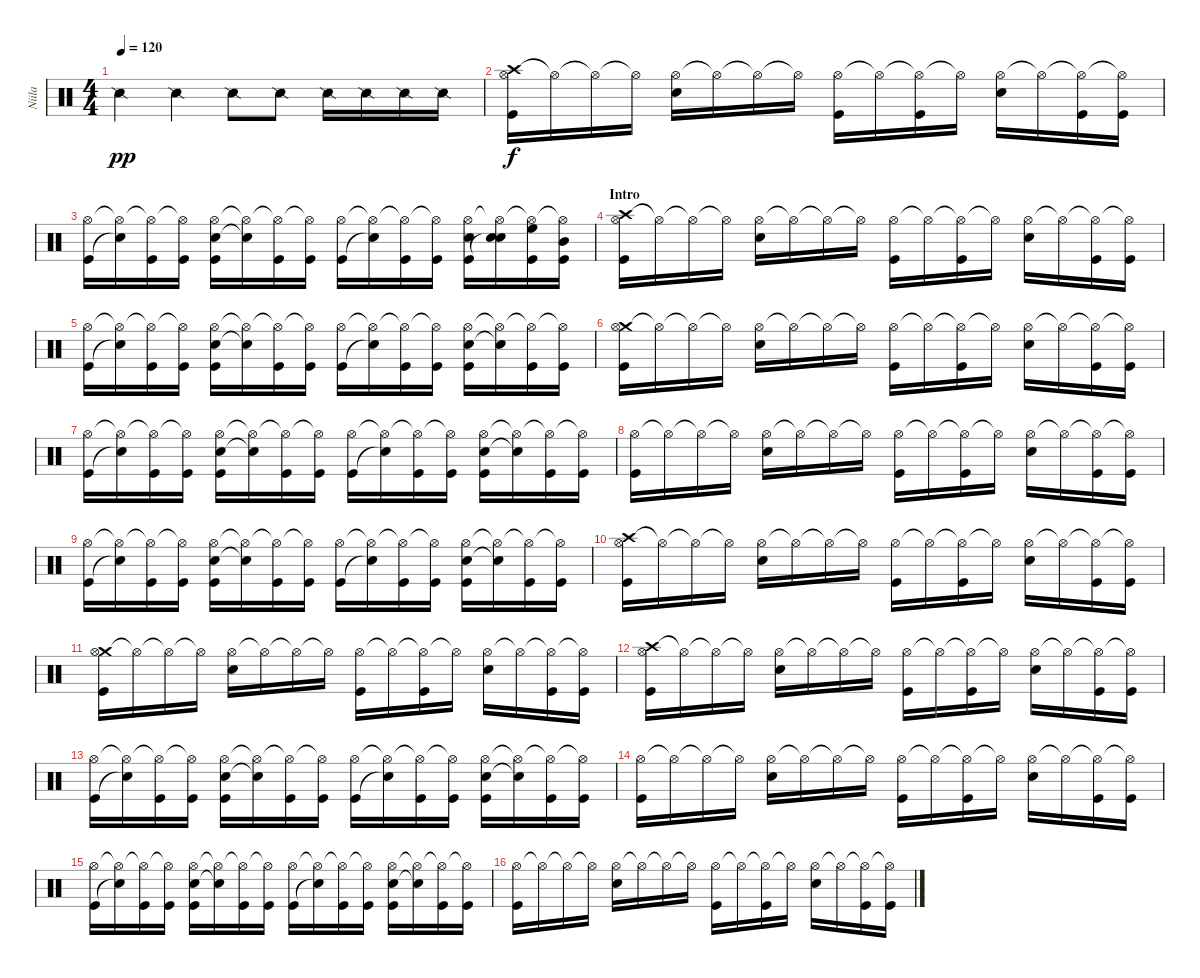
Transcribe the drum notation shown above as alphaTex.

\track ("Niila" "Niila") {instrument percussion}
\staff {score}
\articulation defaults
\ts (4 4)
\tempo 120
\clef neutral
\ks c "Snare (side stick) 2".4{dy pp} "Snare (side stick) 2".4 "Snare (side stick) 2".8 "Snare (side stick) 2".8 "Snare (side stick) 2".16 "Snare (side stick) 2".16 "Snare (side stick) 2".16 "Snare (side stick) 2".16
|
("Crash high (hit)" "Hi-Hat (open)" "Kick (hit)").16{dy f} "Hi-Hat (open)"{t}.16 "Hi-Hat (open)"{t}.16 "Hi-Hat (open)"{t}.16 ("Hi-Hat (open)" "Snare (hit) 2").16 "Hi-Hat (open)"{t}.16 "Hi-Hat (open)"{t}.16 "Hi-Hat (open)"{t}.16 ("Hi-Hat (open)" "Kick (hit)").16 "Hi-Hat (open)"{t}.16 ("Hi-Hat (open)"{t} "Kick (hit)").16 "Hi-Hat (open)"{t}.16 ("Hi-Hat (open)" "Snare (hit) 2").16 "Hi-Hat (open)"{t}.16 ("Hi-Hat (open)"{t} "Kick (hit)").16 ("Hi-Hat (open)"{t} "Kick (hit)").16 |
("Hi-Hat (open)" "Kick (hit)").16 ("Hi-Hat (open)"{t} "Snare (hit)"{t}).16 ("Hi-Hat (open)"{t} "Kick (hit)").16 ("Hi-Hat (open)"{t} "Kick (hit)").16 ("Hi-Hat (open)" "Snare (hit) 2" "Kick (hit)").16 ("Hi-Hat (open)"{t} "Snare (hit)"{t}).16 ("Hi-Hat (open)"{t} "Kick (hit)").16 ("Hi-Hat (open)"{t} "Kick (hit)").16 ("Hi-Hat (open)" "Kick (hit)").16 ("Hi-Hat (open)"{t} "Snare (hit)"{t}).16 ("Hi-Hat (open)"{t} "Kick (hit)").16 ("Hi-Hat (open)"{t} "Kick (hit)").16 ("Hi-Hat (open)" "Snare (hit) 2" "Kick (hit)").16 ("Hi-Hat (open)"{t} "Snare (hit) 2" "Snare (hit)"{t}).16 ("Hi-Hat (open)"{t} "High Floor Tom (hit)" "Kick (hit)").16 ("Hi-Hat (open)"{t} "Mid Tom (hit)" "Kick (hit)").16 |
\section ("" "Intro")
("Crash high (hit)" "Hi-Hat (open)" "Kick (hit)").16 "Hi-Hat (open)"{t}.16 "Hi-Hat (open)"{t}.16 "Hi-Hat (open)"{t}.16 ("Hi-Hat (open)" "Snare (hit) 2").16 "Hi-Hat (open)"{t}.16 "Hi-Hat (open)"{t}.16 "Hi-Hat (open)"{t}.16 ("Hi-Hat (open)" "Kick (hit)").16 "Hi-Hat (open)"{t}.16 ("Hi-Hat (open)"{t} "Kick (hit)").16 "Hi-Hat (open)"{t}.16 ("Hi-Hat (open)" "Snare (hit) 2").16 "Hi-Hat (open)"{t}.16 ("Hi-Hat (open)"{t} "Kick (hit)").16 ("Hi-Hat (open)"{t} "Kick (hit)").16 |
("Hi-Hat (open)" "Kick (hit)").16 ("Hi-Hat (open)"{t} "Snare (hit)"{t}).16 ("Hi-Hat (open)"{t} "Kick (hit)").16 ("Hi-Hat (open)"{t} "Kick (hit)").16 ("Hi-Hat (open)" "Snare (hit) 2" "Kick (hit)").16 ("Hi-Hat (open)"{t} "Snare (hit)"{t}).16 ("Hi-Hat (open)"{t} "Kick (hit)").16 ("Hi-Hat (open)"{t} "Kick (hit)").16 ("Hi-Hat (open)" "Kick (hit)").16 ("Hi-Hat (open)"{t} "Snare (hit)"{t}).16 ("Hi-Hat (open)"{t} "Kick (hit)").16 ("Hi-Hat (open)"{t} "Kick (hit)").16 ("Hi-Hat (open)" "Snare (hit) 2" "Kick (hit)").16 ("Hi-Hat (open)"{t} "Snare (hit)"{t}).16 ("Hi-Hat (open)"{t} "Kick (hit)").16 ("Hi-Hat (open)"{t} "Kick (hit)").16 |
("Crash medium (hit)" "Hi-Hat (open)" "Kick (hit)").16 "Hi-Hat (open)"{t}.16 "Hi-Hat (open)"{t}.16 "Hi-Hat (open)"{t}.16 ("Hi-Hat (open)" "Snare (hit) 2").16 "Hi-Hat (open)"{t}.16 "Hi-Hat (open)"{t}.16 "Hi-Hat (open)"{t}.16 ("Hi-Hat (open)" "Kick (hit)").16 "Hi-Hat (open)"{t}.16 ("Hi-Hat (open)"{t} "Kick (hit)").16 "Hi-Hat (open)"{t}.16 ("Hi-Hat (open)" "Snare (hit) 2").16 "Hi-Hat (open)"{t}.16 ("Hi-Hat (open)"{t} "Kick (hit)").16 ("Hi-Hat (open)"{t} "Kick (hit)").16 |
("Hi-Hat (open)" "Kick (hit)").16 ("Hi-Hat (open)"{t} "Snare (hit)"{t}).16 ("Hi-Hat (open)"{t} "Kick (hit)").16 ("Hi-Hat (open)"{t} "Kick (hit)").16 ("Hi-Hat (open)" "Snare (hit) 2" "Kick (hit)").16 ("Hi-Hat (open)"{t} "Snare (hit)"{t}).16 ("Hi-Hat (open)"{t} "Kick (hit)").16 ("Hi-Hat (open)"{t} "Kick (hit)").16 ("Hi-Hat (open)" "Kick (hit)").16 ("Hi-Hat (open)"{t} "Snare (hit)"{t}).16 ("Hi-Hat (open)"{t} "Kick (hit)").16 ("Hi-Hat (open)"{t} "Kick (hit)").16 ("Hi-Hat (open)" "Snare (hit) 2" "Kick (hit)").16 ("Hi-Hat (open)"{t} "Snare (hit)"{t}).16 ("Hi-Hat (open)"{t} "Kick (hit)").16 ("Hi-Hat (open)"{t} "Kick (hit)").16 |
("Hi-Hat (open)" "Kick (hit)").16 "Hi-Hat (open)"{t}.16 "Hi-Hat (open)"{t}.16 "Hi-Hat (open)"{t}.16 ("Hi-Hat (open)" "Snare (hit) 2").16 "Hi-Hat (open)"{t}.16 "Hi-Hat (open)"{t}.16 "Hi-Hat (open)"{t}.16 ("Hi-Hat (open)" "Kick (hit)").16 "Hi-Hat (open)"{t}.16 ("Hi-Hat (open)"{t} "Kick (hit)").16 "Hi-Hat (open)"{t}.16 ("Hi-Hat (open)" "Snare (hit) 2").16 "Hi-Hat (open)"{t}.16 ("Hi-Hat (open)"{t} "Kick (hit)").16 ("Hi-Hat (open)"{t} "Kick (hit)").16 |
("Hi-Hat (open)" "Kick (hit)").16 ("Hi-Hat (open)"{t} "Snare (hit)"{t}).16 ("Hi-Hat (open)"{t} "Kick (hit)").16 ("Hi-Hat (open)"{t} "Kick (hit)").16 ("Hi-Hat (open)" "Snare (hit) 2" "Kick (hit)").16 ("Hi-Hat (open)"{t} "Snare (hit)"{t}).16 ("Hi-Hat (open)"{t} "Kick (hit)").16 ("Hi-Hat (open)"{t} "Kick (hit)").16 ("Hi-Hat (open)" "Kick (hit)").16 ("Hi-Hat (open)"{t} "Snare (hit)"{t}).16 ("Hi-Hat (open)"{t} "Kick (hit)").16 ("Hi-Hat (open)"{t} "Kick (hit)").16 ("Hi-Hat (open)" "Snare (hit) 2" "Kick (hit)").16 ("Hi-Hat (open)"{t} "Snare (hit)"{t}).16 ("Hi-Hat (open)"{t} "Kick (hit)").16 ("Hi-Hat (open)"{t} "Kick (hit)").16 |
("Crash high (hit)" "Hi-Hat (open)" "Kick (hit)").16 "Hi-Hat (open)"{t}.16 "Hi-Hat (open)"{t}.16 "Hi-Hat (open)"{t}.16 ("Hi-Hat (open)" "Snare (hit) 2").16 "Hi-Hat (open)"{t}.16 "Hi-Hat (open)"{t}.16 "Hi-Hat (open)"{t}.16 ("Hi-Hat (open)" "Kick (hit)").16 "Hi-Hat (open)"{t}.16 ("Hi-Hat (open)"{t} "Kick (hit)").16 "Hi-Hat (open)"{t}.16 ("Hi-Hat (open)" "Snare (hit) 2").16 "Hi-Hat (open)"{t}.16 ("Hi-Hat (open)"{t} "Kick (hit)").16 ("Hi-Hat (open)"{t} "Kick (hit)").16 |
("Crash medium (hit)" "Hi-Hat (open)" "Kick (hit)").16 "Hi-Hat (open)"{t}.16 "Hi-Hat (open)"{t}.16 "Hi-Hat (open)"{t}.16 ("Hi-Hat (open)" "Snare (hit) 2").16 "Hi-Hat (open)"{t}.16 "Hi-Hat (open)"{t}.16 "Hi-Hat (open)"{t}.16 ("Hi-Hat (open)" "Kick (hit)").16 "Hi-Hat (open)"{t}.16 ("Hi-Hat (open)"{t} "Kick (hit)").16 "Hi-Hat (open)"{t}.16 ("Hi-Hat (open)" "Snare (hit) 2").16 "Hi-Hat (open)"{t}.16 ("Hi-Hat (open)"{t} "Kick (hit)").16 ("Hi-Hat (open)"{t} "Kick (hit)").16 |
("Crash high (hit)" "Hi-Hat (open)" "Kick (hit)").16 "Hi-Hat (open)"{t}.16 "Hi-Hat (open)"{t}.16 "Hi-Hat (open)"{t}.16 ("Hi-Hat (open)" "Snare (hit) 2").16 "Hi-Hat (open)"{t}.16 "Hi-Hat (open)"{t}.16 "Hi-Hat (open)"{t}.16 ("Hi-Hat (open)" "Kick (hit)").16 "Hi-Hat (open)"{t}.16 ("Hi-Hat (open)"{t} "Kick (hit)").16 "Hi-Hat (open)"{t}.16 ("Hi-Hat (open)" "Snare (hit) 2").16 "Hi-Hat (open)"{t}.16 ("Hi-Hat (open)"{t} "Kick (hit)").16 ("Hi-Hat (open)"{t} "Kick (hit)").16 |
("Hi-Hat (open)" "Kick (hit)").16 ("Hi-Hat (open)"{t} "Snare (hit)"{t}).16 ("Hi-Hat (open)"{t} "Kick (hit)").16 ("Hi-Hat (open)"{t} "Kick (hit)").16 ("Hi-Hat (open)" "Snare (hit) 2" "Kick (hit)").16 ("Hi-Hat (open)"{t} "Snare (hit)"{t}).16 ("Hi-Hat (open)"{t} "Kick (hit)").16 ("Hi-Hat (open)"{t} "Kick (hit)").16 ("Hi-Hat (open)" "Kick (hit)").16 ("Hi-Hat (open)"{t} "Snare (hit)"{t}).16 ("Hi-Hat (open)"{t} "Kick (hit)").16 ("Hi-Hat (open)"{t} "Kick (hit)").16 ("Hi-Hat (open)" "Snare (hit) 2" "Kick (hit)").16 ("Hi-Hat (open)"{t} "Snare (hit)"{t}).16 ("Hi-Hat (open)"{t} "Kick (hit)").16 ("Hi-Hat (open)"{t} "Kick (hit)").16 |
("Hi-Hat (open)" "Kick (hit)").16 "Hi-Hat (open)"{t}.16 "Hi-Hat (open)"{t}.16 "Hi-Hat (open)"{t}.16 ("Hi-Hat (open)" "Snare (hit) 2").16 "Hi-Hat (open)"{t}.16 "Hi-Hat (open)"{t}.16 "Hi-Hat (open)"{t}.16 ("Hi-Hat (open)" "Kick (hit)").16 "Hi-Hat (open)"{t}.16 ("Hi-Hat (open)"{t} "Kick (hit)").16 "Hi-Hat (open)"{t}.16 ("Hi-Hat (open)" "Snare (hit) 2").16 "Hi-Hat (open)"{t}.16 ("Hi-Hat (open)"{t} "Kick (hit)").16 ("Hi-Hat (open)"{t} "Kick (hit)").16 |
("Hi-Hat (open)" "Kick (hit)").16 ("Hi-Hat (open)"{t} "Snare (hit)"{t}).16 ("Hi-Hat (open)"{t} "Kick (hit)").16 ("Hi-Hat (open)"{t} "Kick (hit)").16 ("Hi-Hat (open)" "Snare (hit) 2" "Kick (hit)").16 ("Hi-Hat (open)"{t} "Snare (hit)"{t}).16 ("Hi-Hat (open)"{t} "Kick (hit)").16 ("Hi-Hat (open)"{t} "Kick (hit)").16 ("Hi-Hat (open)" "Kick (hit)").16 ("Hi-Hat (open)"{t} "Snare (hit)"{t}).16 ("Hi-Hat (open)"{t} "Kick (hit)").16 ("Hi-Hat (open)"{t} "Kick (hit)").16 ("Hi-Hat (open)" "Snare (hit) 2" "Kick (hit)").16 ("Hi-Hat (open)"{t} "Snare (hit)"{t}).16 ("Hi-Hat (open)"{t} "Kick (hit)").16 ("Hi-Hat (open)"{t} "Kick (hit)").16 |
("Hi-Hat (open)" "Kick (hit)").16 "Hi-Hat (open)"{t}.16 "Hi-Hat (open)"{t}.16 "Hi-Hat (open)"{t}.16 ("Hi-Hat (open)" "Snare (hit) 2").16 "Hi-Hat (open)"{t}.16 "Hi-Hat (open)"{t}.16 "Hi-Hat (open)"{t}.16 ("Hi-Hat (open)" "Kick (hit)").16 "Hi-Hat (open)"{t}.16 ("Hi-Hat (open)"{t} "Kick (hit)").16 "Hi-Hat (open)"{t}.16 ("Hi-Hat (open)" "Snare (hit) 2").16 "Hi-Hat (open)"{t}.16 ("Hi-Hat (open)"{t} "Kick (hit)").16 ("Hi-Hat (open)"{t} "Kick (hit)").16
